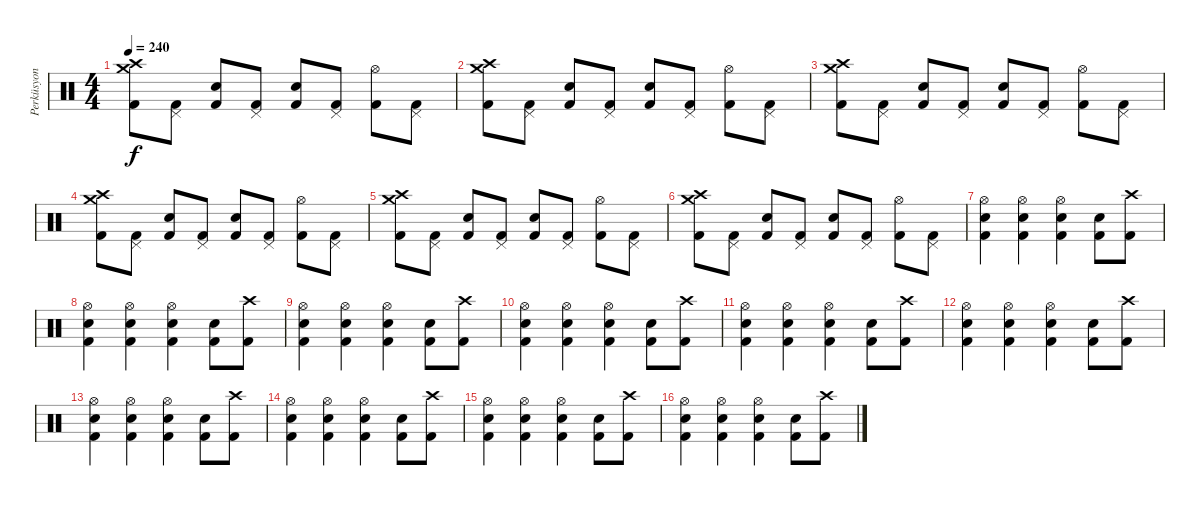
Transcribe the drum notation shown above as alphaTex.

\track ("Perküsyon" "Perküsyon") {instrument percussion}
\staff {score}
\articulation defaults
\ts (4 4)
\tempo 240
\clef neutral
\ks c
("Crash medium (hit)" "Kick (hit) 2" "Crash high (hit)").8{dy f} ("Kick (hit) 2" "Pedal Hi-Hat (hit)").8 ("Kick (hit) 2" "Snare (hit) 2").8 ("Kick (hit) 2" "Pedal Hi-Hat (hit)").8 ("Kick (hit) 2" "Electric Snare (hit)").8 ("Kick (hit) 2" "Pedal Hi-Hat (hit)").8 ("Kick (hit) 2" "Hi-Hat (open)").8 ("Kick (hit) 2" "Pedal Hi-Hat (hit)").8 |
("Crash medium (hit)" "Kick (hit) 2" "Crash high (hit)").8 ("Kick (hit) 2" "Pedal Hi-Hat (hit)").8 ("Kick (hit) 2" "Snare (hit) 2").8 ("Kick (hit) 2" "Pedal Hi-Hat (hit)").8 ("Kick (hit) 2" "Electric Snare (hit)").8 ("Kick (hit) 2" "Pedal Hi-Hat (hit)").8 ("Kick (hit) 2" "Hi-Hat (open)").8 ("Kick (hit) 2" "Pedal Hi-Hat (hit)").8 |
("Crash medium (hit)" "Kick (hit) 2" "Crash high (hit)").8 ("Kick (hit) 2" "Pedal Hi-Hat (hit)").8 ("Kick (hit) 2" "Snare (hit) 2").8 ("Kick (hit) 2" "Pedal Hi-Hat (hit)").8 ("Kick (hit) 2" "Electric Snare (hit)").8 ("Kick (hit) 2" "Pedal Hi-Hat (hit)").8 ("Kick (hit) 2" "Hi-Hat (open)").8 ("Kick (hit) 2" "Pedal Hi-Hat (hit)").8 |
("Crash medium (hit)" "Kick (hit) 2" "Crash high (hit)").8 ("Kick (hit) 2" "Pedal Hi-Hat (hit)").8 ("Kick (hit) 2" "Snare (hit) 2").8 ("Kick (hit) 2" "Pedal Hi-Hat (hit)").8 ("Kick (hit) 2" "Electric Snare (hit)").8 ("Kick (hit) 2" "Pedal Hi-Hat (hit)").8 ("Kick (hit) 2" "Hi-Hat (open)").8 ("Kick (hit) 2" "Pedal Hi-Hat (hit)").8 |
("Crash medium (hit)" "Kick (hit) 2" "Crash high (hit)").8 ("Kick (hit) 2" "Pedal Hi-Hat (hit)").8 ("Kick (hit) 2" "Snare (hit) 2").8 ("Kick (hit) 2" "Pedal Hi-Hat (hit)").8 ("Kick (hit) 2" "Electric Snare (hit)").8 ("Kick (hit) 2" "Pedal Hi-Hat (hit)").8 ("Kick (hit) 2" "Hi-Hat (open)").8 ("Kick (hit) 2" "Pedal Hi-Hat (hit)").8 |
("Crash medium (hit)" "Kick (hit) 2" "Crash high (hit)").8 ("Kick (hit) 2" "Pedal Hi-Hat (hit)").8 ("Kick (hit) 2" "Snare (hit) 2").8 ("Kick (hit) 2" "Pedal Hi-Hat (hit)").8 ("Kick (hit) 2" "Electric Snare (hit)").8 ("Kick (hit) 2" "Pedal Hi-Hat (hit)").8 ("Kick (hit) 2" "Hi-Hat (open)").8 ("Kick (hit) 2" "Pedal Hi-Hat (hit)").8 |
("Hi-Hat (open)" "Kick (hit) 2" "Electric Snare (hit)").4 ("Hi-Hat (open)" "Kick (hit) 2" "Electric Snare (hit)").4 ("Hi-Hat (open)" "Kick (hit) 2" "Electric Snare (hit)").4 ("Electric Snare (hit)" "Kick (hit) 2").8 ("Crash high (hit)" "Kick (hit) 2").8 |
("Hi-Hat (open)" "Kick (hit) 2" "Electric Snare (hit)").4 ("Hi-Hat (open)" "Kick (hit) 2" "Electric Snare (hit)").4 ("Hi-Hat (open)" "Kick (hit) 2" "Electric Snare (hit)").4 ("Electric Snare (hit)" "Kick (hit) 2").8 ("Crash high (hit)" "Kick (hit) 2").8 |
("Hi-Hat (open)" "Kick (hit) 2" "Electric Snare (hit)").4 ("Hi-Hat (open)" "Kick (hit) 2" "Electric Snare (hit)").4 ("Hi-Hat (open)" "Kick (hit) 2" "Electric Snare (hit)").4 ("Electric Snare (hit)" "Kick (hit) 2").8 ("Crash high (hit)" "Kick (hit) 2").8 |
("Hi-Hat (open)" "Kick (hit) 2" "Electric Snare (hit)").4 ("Hi-Hat (open)" "Kick (hit) 2" "Electric Snare (hit)").4 ("Hi-Hat (open)" "Kick (hit) 2" "Electric Snare (hit)").4 ("Electric Snare (hit)" "Kick (hit) 2").8 ("Crash high (hit)" "Kick (hit) 2").8 |
("Hi-Hat (open)" "Kick (hit) 2" "Electric Snare (hit)").4 ("Hi-Hat (open)" "Kick (hit) 2" "Electric Snare (hit)").4 ("Hi-Hat (open)" "Kick (hit) 2" "Electric Snare (hit)").4 ("Electric Snare (hit)" "Kick (hit) 2").8 ("Crash high (hit)" "Kick (hit) 2").8 |
("Hi-Hat (open)" "Kick (hit) 2" "Electric Snare (hit)").4 ("Hi-Hat (open)" "Kick (hit) 2" "Electric Snare (hit)").4 ("Hi-Hat (open)" "Kick (hit) 2" "Electric Snare (hit)").4 ("Electric Snare (hit)" "Kick (hit) 2").8 ("Crash high (hit)" "Kick (hit) 2").8 |
("Hi-Hat (open)" "Kick (hit) 2" "Electric Snare (hit)").4 ("Hi-Hat (open)" "Kick (hit) 2" "Electric Snare (hit)").4 ("Hi-Hat (open)" "Kick (hit) 2" "Electric Snare (hit)").4 ("Electric Snare (hit)" "Kick (hit) 2").8 ("Crash high (hit)" "Kick (hit) 2").8 |
("Hi-Hat (open)" "Kick (hit) 2" "Electric Snare (hit)").4 ("Hi-Hat (open)" "Kick (hit) 2" "Electric Snare (hit)").4 ("Hi-Hat (open)" "Kick (hit) 2" "Electric Snare (hit)").4 ("Electric Snare (hit)" "Kick (hit) 2").8 ("Crash high (hit)" "Kick (hit) 2").8 |
("Hi-Hat (open)" "Kick (hit) 2" "Electric Snare (hit)").4 ("Hi-Hat (open)" "Kick (hit) 2" "Electric Snare (hit)").4 ("Hi-Hat (open)" "Kick (hit) 2" "Electric Snare (hit)").4 ("Electric Snare (hit)" "Kick (hit) 2").8 ("Crash high (hit)" "Kick (hit) 2").8 |
("Hi-Hat (open)" "Kick (hit) 2" "Electric Snare (hit)").4 ("Hi-Hat (open)" "Kick (hit) 2" "Electric Snare (hit)").4 ("Hi-Hat (open)" "Kick (hit) 2" "Electric Snare (hit)").4 ("Electric Snare (hit)" "Kick (hit) 2").8 ("Crash high (hit)" "Kick (hit) 2").8
